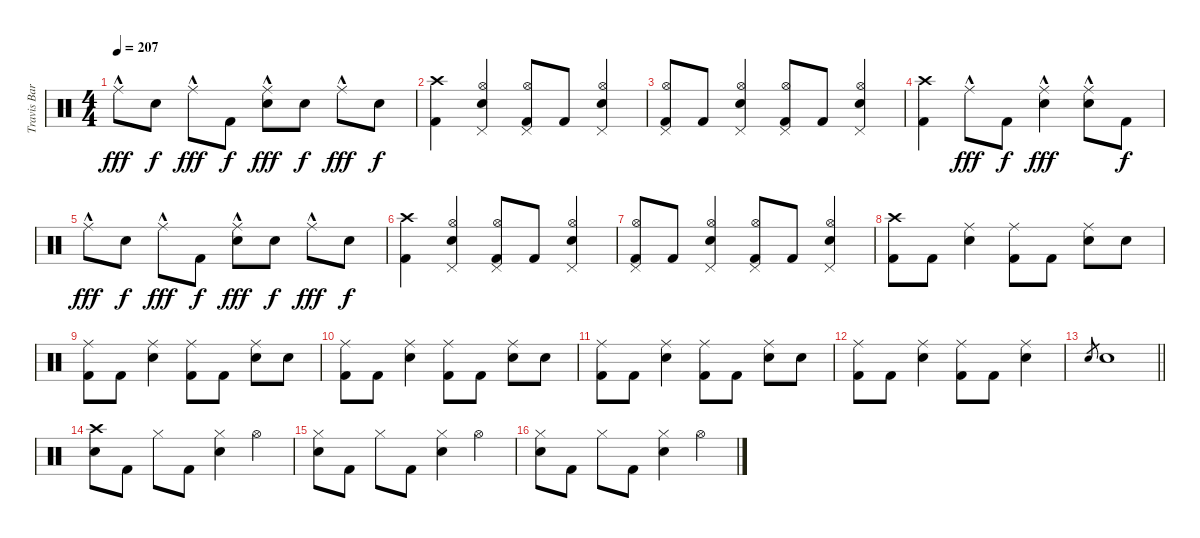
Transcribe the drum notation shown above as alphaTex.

\track ("Travis Barker" "Travis Bar") {instrument percussion}
\staff {score}
\articulation defaults
\ts (4 4)
\tempo 207
\clef neutral
\ks c "Ride (middle)"{hac}.8{dy fff} "Electric Snare (hit)".8{dy f} "Ride (middle)"{hac}.8{dy fff} "Kick (hit) 2".8{dy f}
("Ride (middle)"{hac} "Electric Snare (hit)").8{dy fff} "Electric Snare (hit)".8{dy f} "Ride (middle)"{hac}.8{dy fff} "Electric Snare (hit)".8{dy f} |
("Crash high (hit)" "Kick (hit) 2").4 ("Hi-Hat (open)" "Pedal Hi-Hat (hit)" "Electric Snare (hit)").4 ("Hi-Hat (open)" "Pedal Hi-Hat (hit)" "Kick (hit) 2").8 "Kick (hit) 2".8 ("Hi-Hat (open)" "Pedal Hi-Hat (hit)" "Electric Snare (hit)").4 |
("Hi-Hat (open)" "Pedal Hi-Hat (hit)" "Kick (hit) 2").8 "Kick (hit) 2".8 ("Hi-Hat (open)" "Pedal Hi-Hat (hit)" "Electric Snare (hit)").4 ("Hi-Hat (open)" "Pedal Hi-Hat (hit)" "Kick (hit) 2").8 "Kick (hit) 2".8 ("Hi-Hat (open)" "Pedal Hi-Hat (hit)" "Electric Snare (hit)").4 |
("Crash high (hit)" "Kick (hit) 2").4 "Ride (middle)"{hac}.8{dy fff} "Kick (hit) 2".8{dy f} ("Ride (middle)"{hac} "Electric Snare (hit)").4{dy fff} ("Ride (middle)"{hac} "Electric Snare (hit)").8 "Kick (hit) 2".8{dy f} |
"Ride (middle)"{hac}.8{dy fff} "Electric Snare (hit)".8{dy f} "Ride (middle)"{hac}.8{dy fff} "Kick (hit) 2".8{dy f} ("Ride (middle)"{hac} "Electric Snare (hit)").8{dy fff} "Electric Snare (hit)".8{dy f} "Ride (middle)"{hac}.8{dy fff} "Electric Snare (hit)".8{dy f} |
("Crash high (hit)" "Kick (hit) 2").4 ("Hi-Hat (open)" "Pedal Hi-Hat (hit)" "Electric Snare (hit)").4 ("Hi-Hat (open)" "Pedal Hi-Hat (hit)" "Kick (hit) 2").8 "Kick (hit) 2".8 ("Hi-Hat (open)" "Pedal Hi-Hat (hit)" "Electric Snare (hit)").4 |
("Hi-Hat (open)" "Pedal Hi-Hat (hit)" "Kick (hit) 2").8 "Kick (hit) 2".8 ("Hi-Hat (open)" "Pedal Hi-Hat (hit)" "Electric Snare (hit)").4 ("Hi-Hat (open)" "Pedal Hi-Hat (hit)" "Kick (hit) 2").8 "Kick (hit) 2".8 ("Hi-Hat (open)" "Pedal Hi-Hat (hit)" "Electric Snare (hit)").4 |
("Crash high (hit)" "Kick (hit) 2").8 "Kick (hit) 2".8 ("Ride (middle)" "Electric Snare (hit)").4 ("Ride (middle)" "Kick (hit) 2").8 "Kick (hit) 2".8 ("Ride (middle)" "Electric Snare (hit)").8 "Electric Snare (hit)".8 |
("Ride (middle)" "Kick (hit) 2").8 "Kick (hit) 2".8 ("Ride (middle)" "Electric Snare (hit)").4 ("Ride (middle)" "Kick (hit) 2").8 "Kick (hit) 2".8 ("Ride (middle)" "Electric Snare (hit)").8 "Electric Snare (hit)".8 |
("Ride (middle)" "Kick (hit) 2").8 "Kick (hit) 2".8 ("Ride (middle)" "Electric Snare (hit)").4 ("Ride (middle)" "Kick (hit) 2").8 "Kick (hit) 2".8 ("Ride (middle)" "Electric Snare (hit)").8 "Electric Snare (hit)".8 |
("Ride (middle)" "Kick (hit) 2").8 "Kick (hit) 2".8 ("Ride (middle)" "Electric Snare (hit)").4 ("Ride (middle)" "Kick (hit) 2").8 "Kick (hit) 2".8 ("Ride (middle)" "Electric Snare (hit)").8 "Electric Snare (hit)".8 |
("Ride (middle)" "Kick (hit) 2").8 "Kick (hit) 2".8 ("Ride (middle)" "Electric Snare (hit)").4 ("Ride (middle)" "Kick (hit) 2").8 "Kick (hit) 2".8 ("Ride (middle)" "Electric Snare (hit)").4 |
\barLineRight lightlight "Electric Snare (hit)".8{gr} "Electric Snare (hit)".1
|
("Crash high (hit)" "Electric Snare (hit)").8 "Kick (hit) 2".8 "Hi-Hat (closed)".8 "Kick (hit) 2".8 ("Hi-Hat (closed)" "Electric Snare (hit)").4 "Hi-Hat (open)".4 |
("Hi-Hat (closed)" "Electric Snare (hit)").8 "Kick (hit) 2".8 "Hi-Hat (closed)".8 "Kick (hit) 2".8 ("Hi-Hat (closed)" "Electric Snare (hit)").4 "Hi-Hat (open)".4 |
("Hi-Hat (closed)" "Electric Snare (hit)").8 "Kick (hit) 2".8 "Hi-Hat (closed)".8 "Kick (hit) 2".8 ("Hi-Hat (closed)" "Electric Snare (hit)").4 "Hi-Hat (open)".4
